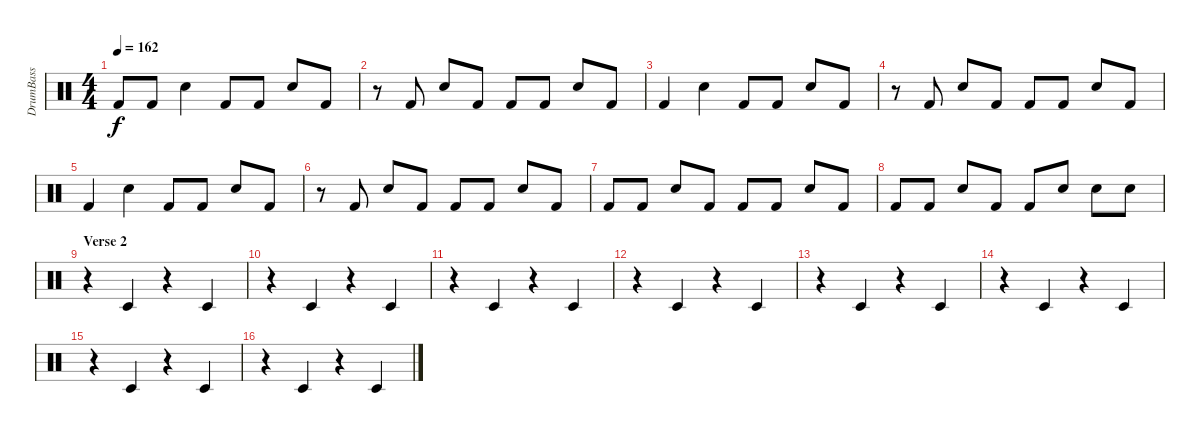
\track ("DrumBass" "DrumBass") {instrument percussion}
\staff {score}
\articulation defaults
\ts (4 4)
\tempo 162
\clef neutral
\ks c "Kick (hit) 2".8{dy f} "Kick (hit) 2".8 "Snare (hit) 2".4 "Kick (hit) 2".8 "Kick (hit) 2".8 "Snare (hit) 2".8 "Kick (hit) 2".8
|
r.8 "Kick (hit) 2".8 "Snare (hit) 2".8 "Kick (hit) 2".8 "Kick (hit) 2".8 "Kick (hit) 2".8 "Snare (hit) 2".8 "Kick (hit) 2".8 |
"Kick (hit) 2".4 "Snare (hit) 2".4 "Kick (hit) 2".8 "Kick (hit) 2".8 "Snare (hit) 2".8 "Kick (hit) 2".8 |
r.8 "Kick (hit) 2".8 "Snare (hit) 2".8 "Kick (hit) 2".8 "Kick (hit) 2".8 "Kick (hit) 2".8 "Snare (hit) 2".8 "Kick (hit) 2".8 |
"Kick (hit) 2".4 "Snare (hit) 2".4 "Kick (hit) 2".8 "Kick (hit) 2".8 "Snare (hit) 2".8 "Kick (hit) 2".8 |
r.8 "Kick (hit) 2".8 "Snare (hit) 2".8 "Kick (hit) 2".8 "Kick (hit) 2".8 "Kick (hit) 2".8 "Snare (hit) 2".8 "Kick (hit) 2".8 |
"Kick (hit) 2".8 "Kick (hit) 2".8 "Snare (hit) 2".8 "Kick (hit) 2".8 "Kick (hit) 2".8 "Kick (hit) 2".8 "Snare (hit) 2".8 "Kick (hit) 2".8 |
"Kick (hit) 2".8 "Kick (hit) 2".8 "Snare (hit) 2".8 "Kick (hit) 2".8 "Kick (hit) 2".8 "Snare (hit) 2"{tr (38 16)}.8 "Snare (hit) 2"{tr (38 16)}.8 "Snare (hit) 2"{tr (38 16)}.8 |
\section ("" "Verse 2")
r.4 "Timbale low (hit)".4 r.4 "Timbale low (hit)".4 |
r.4 "Timbale low (hit)".4 r.4 "Timbale low (hit)".4 |
r.4 "Timbale low (hit)".4 r.4 "Timbale low (hit)".4 |
r.4 "Timbale low (hit)".4 r.4 "Timbale low (hit)".4 |
r.4 "Timbale low (hit)".4 r.4 "Timbale low (hit)".4 |
r.4 "Timbale low (hit)".4 r.4 "Timbale low (hit)".4 |
r.4 "Timbale low (hit)".4 r.4 "Timbale low (hit)".4 |
r.4 "Timbale low (hit)".4 r.4 "Timbale low (hit)".4
